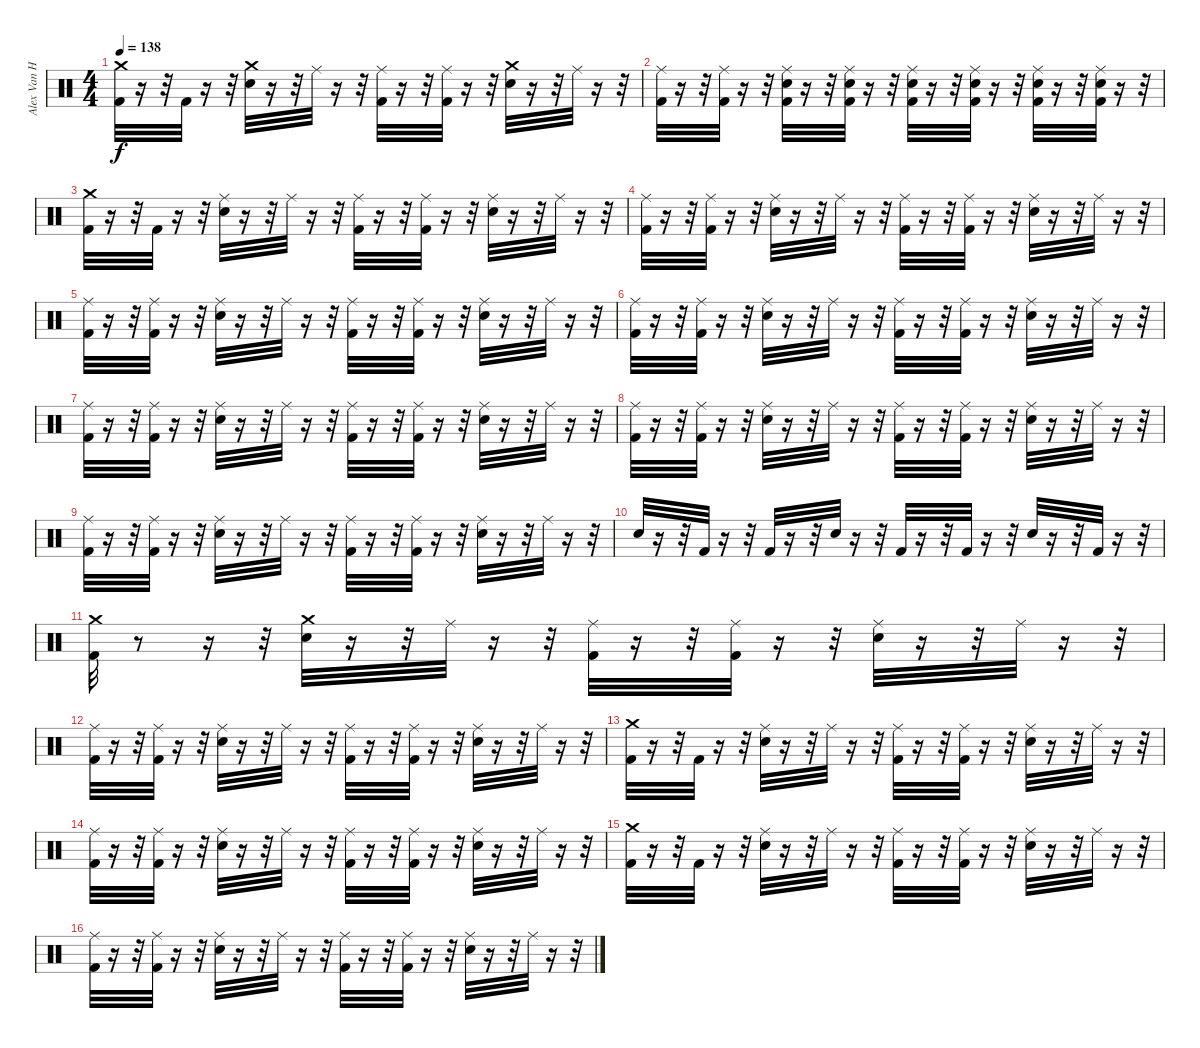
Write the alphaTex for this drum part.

\track ("Alex Van Halen (Drums)" "Alex Van H") {instrument percussion}
\staff {score}
\articulation defaults
\ts (4 4)
\tempo 138
\clef neutral
\ks c
("Kick (hit) 2" "Crash medium (hit)").32{dy f} r.16 r.32 "Kick (hit) 2".32 r.16 r.32 ("Snare (hit) 2" "Crash medium (hit)").32 r.16 r.32 "Ride (middle)".32 r.16 r.32 ("Kick (hit) 2" "Ride (middle)").32 r.16 r.32 ("Kick (hit) 2" "Ride (middle)").32 r.16 r.32 ("Snare (hit) 2" "Crash medium (hit)").32 r.16 r.32 "Ride (middle)".32 r.16 r.32 |
("Kick (hit) 2" "Ride (middle)").32 r.16 r.32 ("Kick (hit) 2" "Ride (middle)").32 r.16 r.32 ("Snare (hit) 2" "Kick (hit) 2" "Ride (middle)").32 r.16 r.32 ("Snare (hit) 2" "Kick (hit) 2" "Ride (middle)").32 r.16 r.32 ("Snare (hit) 2" "Kick (hit) 2" "Ride (middle)").32 r.16 r.32 ("Snare (hit) 2" "Kick (hit) 2" "Ride (middle)").32 r.16 r.32 ("Snare (hit) 2" "Kick (hit) 2" "Ride (middle)").32 r.16 r.32 ("Snare (hit) 2" "Kick (hit) 2" "Ride (middle)").32 r.16 r.32 |
("Kick (hit) 2" "Crash medium (hit)").32 r.16 r.32 "Kick (hit) 2".32 r.16 r.32 ("Snare (hit) 2" "Ride (middle)").32 r.16 r.32 "Ride (middle)".32 r.16 r.32 ("Kick (hit) 2" "Ride (middle)").32 r.16 r.32 ("Kick (hit) 2" "Ride (middle)").32 r.16 r.32 ("Snare (hit) 2" "Ride (middle)").32 r.16 r.32 "Ride (middle)".32 r.16 r.32 |
("Kick (hit) 2" "Ride (middle)").32 r.16 r.32 ("Kick (hit) 2" "Ride (middle)").32 r.16 r.32 ("Snare (hit) 2" "Ride (middle)").32 r.16 r.32 "Ride (middle)".32 r.16 r.32 ("Kick (hit) 2" "Ride (middle)").32 r.16 r.32 ("Kick (hit) 2" "Ride (middle)").32 r.16 r.32 ("Snare (hit) 2" "Ride (middle)").32 r.16 r.32 "Ride (middle)".32 r.16 r.32 |
("Kick (hit) 2" "Ride (middle)").32 r.16 r.32 ("Kick (hit) 2" "Ride (middle)").32 r.16 r.32 ("Snare (hit) 2" "Ride (middle)").32 r.16 r.32 "Ride (middle)".32 r.16 r.32 ("Kick (hit) 2" "Ride (middle)").32 r.16 r.32 ("Kick (hit) 2" "Ride (middle)").32 r.16 r.32 ("Snare (hit) 2" "Ride (middle)").32 r.16 r.32 "Ride (middle)".32 r.16 r.32 |
("Kick (hit) 2" "Ride (middle)").32 r.16 r.32 ("Kick (hit) 2" "Ride (middle)").32 r.16 r.32 ("Snare (hit) 2" "Ride (middle)").32 r.16 r.32 "Ride (middle)".32 r.16 r.32 ("Kick (hit) 2" "Ride (middle)").32 r.16 r.32 ("Kick (hit) 2" "Ride (middle)").32 r.16 r.32 ("Snare (hit) 2" "Ride (middle)").32 r.16 r.32 "Ride (middle)".32 r.16 r.32 |
("Kick (hit) 2" "Ride (middle)").32 r.16 r.32 ("Kick (hit) 2" "Ride (middle)").32 r.16 r.32 ("Snare (hit) 2" "Ride (middle)").32 r.16 r.32 "Ride (middle)".32 r.16 r.32 ("Kick (hit) 2" "Ride (middle)").32 r.16 r.32 ("Kick (hit) 2" "Ride (middle)").32 r.16 r.32 ("Snare (hit) 2" "Ride (middle)").32 r.16 r.32 "Ride (middle)".32 r.16 r.32 |
("Kick (hit) 2" "Ride (middle)").32 r.16 r.32 ("Kick (hit) 2" "Ride (middle)").32 r.16 r.32 ("Snare (hit) 2" "Ride (middle)").32 r.16 r.32 "Ride (middle)".32 r.16 r.32 ("Kick (hit) 2" "Ride (middle)").32 r.16 r.32 ("Kick (hit) 2" "Ride (middle)").32 r.16 r.32 ("Snare (hit) 2" "Ride (middle)").32 r.16 r.32 "Ride (middle)".32 r.16 r.32 |
("Kick (hit) 2" "Ride (middle)").32 r.16 r.32 ("Kick (hit) 2" "Ride (middle)").32 r.16 r.32 ("Snare (hit) 2" "Ride (middle)").32 r.16 r.32 "Ride (middle)".32 r.16 r.32 ("Kick (hit) 2" "Ride (middle)").32 r.16 r.32 ("Kick (hit) 2" "Ride (middle)").32 r.16 r.32 ("Snare (hit) 2" "Ride (middle)").32 r.16 r.32 "Ride (middle)".32 r.16 r.32 |
"Snare (hit) 2".32 r.16 r.32 "Kick (hit) 2".32 r.16 r.32 "Kick (hit) 2".32 r.16 r.32 "Snare (hit) 2".32 r.16 r.32 "Kick (hit) 2".32 r.16 r.32 "Kick (hit) 2".32 r.16 r.32 "Snare (hit) 2".32 r.16 r.32 "Kick (hit) 2".32 r.16 r.32 |
("Kick (hit) 2" "Crash medium (hit)").32 r.8 r.16 r.32 ("Snare (hit) 2" "Crash medium (hit)").32 r.16 r.32 "Ride (middle)".32 r.16 r.32 ("Kick (hit) 2" "Ride (middle)").32 r.16 r.32 ("Kick (hit) 2" "Ride (middle)").32 r.16 r.32 ("Snare (hit) 2" "Ride (middle)").32 r.16 r.32 "Ride (middle)".32 r.16 r.32 |
("Kick (hit) 2" "Ride (middle)").32 r.16 r.32 ("Kick (hit) 2" "Ride (middle)").32 r.16 r.32 ("Snare (hit) 2" "Ride (middle)").32 r.16 r.32 "Ride (middle)".32 r.16 r.32 ("Kick (hit) 2" "Ride (middle)").32 r.16 r.32 ("Kick (hit) 2" "Ride (middle)").32 r.16 r.32 ("Snare (hit) 2" "Ride (middle)").32 r.16 r.32 "Ride (middle)".32 r.16 r.32 |
("Kick (hit) 2" "Crash medium (hit)").32 r.16 r.32 "Kick (hit) 2".32 r.16 r.32 ("Snare (hit) 2" "Ride (middle)").32 r.16 r.32 "Ride (middle)".32 r.16 r.32 ("Kick (hit) 2" "Ride (middle)").32 r.16 r.32 ("Kick (hit) 2" "Ride (middle)").32 r.16 r.32 ("Snare (hit) 2" "Ride (middle)").32 r.16 r.32 "Ride (middle)".32 r.16 r.32 |
("Kick (hit) 2" "Ride (middle)").32 r.16 r.32 ("Kick (hit) 2" "Ride (middle)").32 r.16 r.32 ("Snare (hit) 2" "Ride (middle)").32 r.16 r.32 "Ride (middle)".32 r.16 r.32 ("Kick (hit) 2" "Ride (middle)").32 r.16 r.32 ("Kick (hit) 2" "Ride (middle)").32 r.16 r.32 ("Snare (hit) 2" "Ride (middle)").32 r.16 r.32 "Ride (middle)".32 r.16 r.32 |
("Kick (hit) 2" "Crash medium (hit)").32 r.16 r.32 "Kick (hit) 2".32 r.16 r.32 ("Snare (hit) 2" "Ride (middle)").32 r.16 r.32 "Ride (middle)".32 r.16 r.32 ("Kick (hit) 2" "Ride (middle)").32 r.16 r.32 ("Kick (hit) 2" "Ride (middle)").32 r.16 r.32 ("Snare (hit) 2" "Ride (middle)").32 r.16 r.32 "Ride (middle)".32 r.16 r.32 |
("Kick (hit) 2" "Ride (middle)").32 r.16 r.32 ("Kick (hit) 2" "Ride (middle)").32 r.16 r.32 ("Snare (hit) 2" "Ride (middle)").32 r.16 r.32 "Ride (middle)".32 r.16 r.32 ("Kick (hit) 2" "Ride (middle)").32 r.16 r.32 ("Kick (hit) 2" "Ride (middle)").32 r.16 r.32 ("Snare (hit) 2" "Ride (middle)").32 r.16 r.32 "Ride (middle)".32 r.16 r.32
